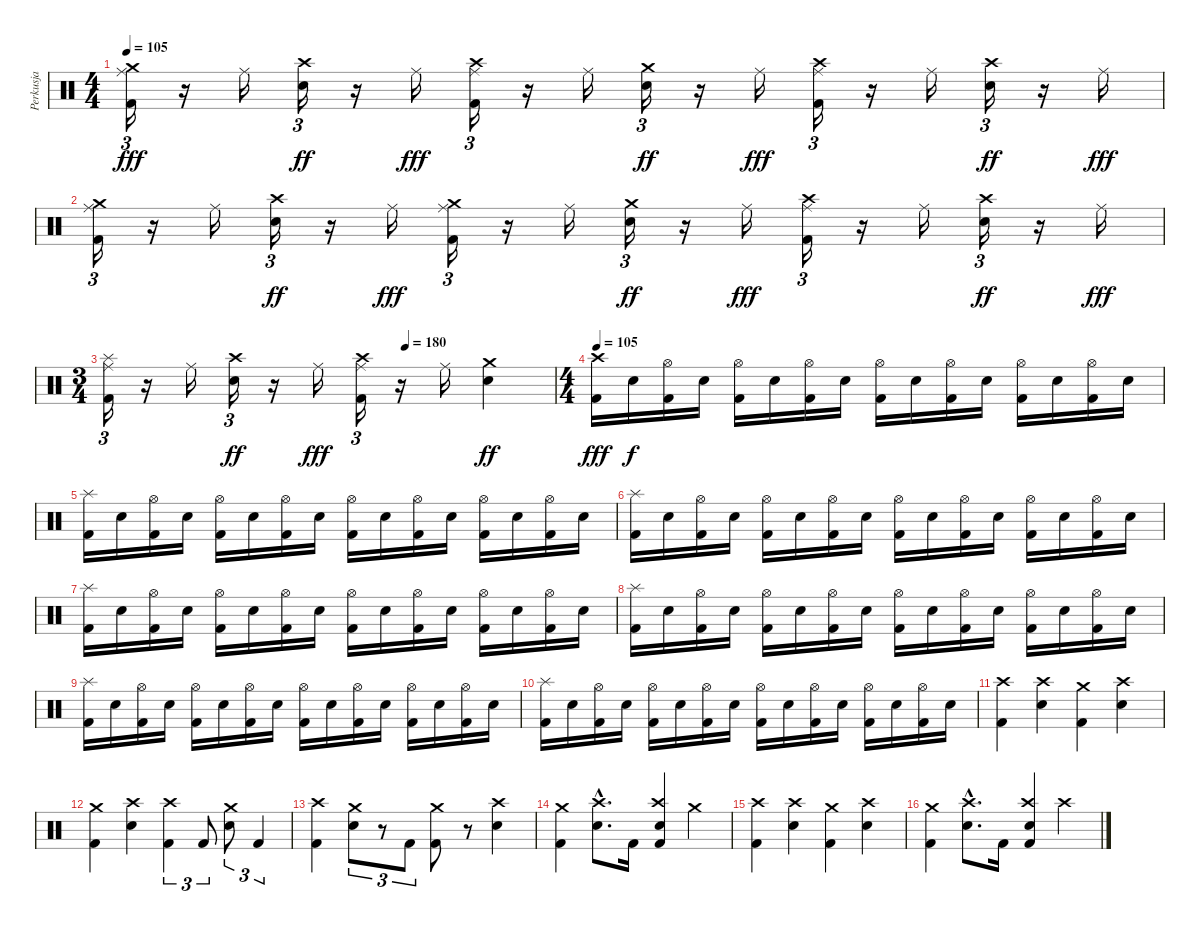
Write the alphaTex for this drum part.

\track ("Perkusja" "Perkusja") {instrument percussion}
\staff {score}
\articulation defaults
\ts (4 4)
\tempo 105
\clef neutral
\ks c
("Ride (middle)" "Crash medium (hit)" "Kick (hit) 2").16{tu (3 2) dy fff} r.16 "Ride (middle)".16 ("Crash high (hit)" "Snare (hit) 2").16{tu (3 2) dy ff} r.16 "Ride (middle)".16{dy fff} ("Ride (middle)" "Crash high (hit)" "Kick (hit) 2").16{tu (3 2)} r.16 "Ride (middle)".16 ("Crash medium (hit)" "Snare (hit) 2").16{tu (3 2) dy ff} r.16 "Ride (middle)".16{dy fff} ("Ride (middle)" "Crash high (hit)" "Kick (hit) 2").16{tu (3 2)} r.16 "Ride (middle)".16 ("Crash high (hit)" "Snare (hit) 2").16{tu (3 2) dy ff} r.16 "Ride (middle)".16{dy fff} |
("Ride (middle)" "Crash medium (hit)" "Kick (hit) 2").16{tu (3 2)} r.16 "Ride (middle)".16 ("Crash high (hit)" "Snare (hit) 2").16{tu (3 2) dy ff} r.16 "Ride (middle)".16{dy fff} ("Ride (middle)" "Crash medium (hit)" "Kick (hit) 2").16{tu (3 2)} r.16 "Ride (middle)".16 ("Crash medium (hit)" "Snare (hit) 2").16{tu (3 2) dy ff} r.16 "Ride (middle)".16{dy fff} ("Ride (middle)" "Crash high (hit)" "Kick (hit) 2").16{tu (3 2)} r.16 "Ride (middle)".16 ("Crash high (hit)" "Snare (hit) 2").16{tu (3 2) dy ff} r.16 "Ride (middle)".16{dy fff} |
\ts (3 4)
\tempo (180 0.6666666666666666)
("Ride (middle)" "Splash (hit)" "Kick (hit) 2").16{tu (3 2)} r.16 "Ride (middle)".16 ("Crash high (hit)" "Snare (hit) 2").16{tu (3 2) dy ff} r.16 "Ride (middle)".16{dy fff} ("Ride (middle)" "Crash high (hit)" "Kick (hit) 2").16{tu (3 2)} r.16 "Ride (middle)".16 ("Crash medium (hit)" "Snare (hit) 2").4{dy ff} |
\ts (4 4)
\tempo 105
("Crash high (hit)" "Kick (hit) 2").16{dy fff} "Snare (hit) 2".16{dy f} ("Hi-Hat (open)" "Kick (hit) 2").16 "Snare (hit) 2".16 ("Hi-Hat (open)" "Kick (hit) 2").16 "Snare (hit) 2".16 ("Hi-Hat (open)" "Kick (hit) 2").16 "Snare (hit) 2".16 ("Hi-Hat (open)" "Kick (hit) 2").16 "Snare (hit) 2".16 ("Hi-Hat (open)" "Kick (hit) 2").16 "Snare (hit) 2".16 ("Hi-Hat (open)" "Kick (hit) 2").16 "Snare (hit) 2".16 ("Hi-Hat (open)" "Kick (hit) 2").16 "Snare (hit) 2".16 |
("Splash (hit)" "Kick (hit) 2").16 "Snare (hit) 2".16 ("Hi-Hat (open)" "Kick (hit) 2").16 "Snare (hit) 2".16 ("Hi-Hat (open)" "Kick (hit) 2").16 "Snare (hit) 2".16 ("Hi-Hat (open)" "Kick (hit) 2").16 "Snare (hit) 2".16 ("Hi-Hat (open)" "Kick (hit) 2").16 "Snare (hit) 2".16 ("Hi-Hat (open)" "Kick (hit) 2").16 "Snare (hit) 2".16 ("Hi-Hat (open)" "Kick (hit) 2").16 "Snare (hit) 2".16 ("Hi-Hat (open)" "Kick (hit) 2").16 "Snare (hit) 2".16 |
("Splash (hit)" "Kick (hit) 2").16 "Snare (hit) 2".16 ("Hi-Hat (open)" "Kick (hit) 2").16 "Snare (hit) 2".16 ("Hi-Hat (open)" "Kick (hit) 2").16 "Snare (hit) 2".16 ("Hi-Hat (open)" "Kick (hit) 2").16 "Snare (hit) 2".16 ("Hi-Hat (open)" "Kick (hit) 2").16 "Snare (hit) 2".16 ("Hi-Hat (open)" "Kick (hit) 2").16 "Snare (hit) 2".16 ("Hi-Hat (open)" "Kick (hit) 2").16 "Snare (hit) 2".16 ("Hi-Hat (open)" "Kick (hit) 2").16 "Snare (hit) 2".16 |
("Splash (hit)" "Kick (hit) 2").16 "Snare (hit) 2".16 ("Hi-Hat (open)" "Kick (hit) 2").16 "Snare (hit) 2".16 ("Hi-Hat (open)" "Kick (hit) 2").16 "Snare (hit) 2".16 ("Hi-Hat (open)" "Kick (hit) 2").16 "Snare (hit) 2".16 ("Hi-Hat (open)" "Kick (hit) 2").16 "Snare (hit) 2".16 ("Hi-Hat (open)" "Kick (hit) 2").16 "Snare (hit) 2".16 ("Hi-Hat (open)" "Kick (hit) 2").16 "Snare (hit) 2".16 ("Hi-Hat (open)" "Kick (hit) 2").16 "Snare (hit) 2".16 |
("Splash (hit)" "Kick (hit) 2").16 "Snare (hit) 2".16 ("Hi-Hat (open)" "Kick (hit) 2").16 "Snare (hit) 2".16 ("Hi-Hat (open)" "Kick (hit) 2").16 "Snare (hit) 2".16 ("Hi-Hat (open)" "Kick (hit) 2").16 "Snare (hit) 2".16 ("Hi-Hat (open)" "Kick (hit) 2").16 "Snare (hit) 2".16 ("Hi-Hat (open)" "Kick (hit) 2").16 "Snare (hit) 2".16 ("Hi-Hat (open)" "Kick (hit) 2").16 "Snare (hit) 2".16 ("Hi-Hat (open)" "Kick (hit) 2").16 "Snare (hit) 2".16 |
("Splash (hit)" "Kick (hit) 2").16 "Snare (hit) 2".16 ("Hi-Hat (open)" "Kick (hit) 2").16 "Snare (hit) 2".16 ("Hi-Hat (open)" "Kick (hit) 2").16 "Snare (hit) 2".16 ("Hi-Hat (open)" "Kick (hit) 2").16 "Snare (hit) 2".16 ("Hi-Hat (open)" "Kick (hit) 2").16 "Snare (hit) 2".16 ("Hi-Hat (open)" "Kick (hit) 2").16 "Snare (hit) 2".16 ("Hi-Hat (open)" "Kick (hit) 2").16 "Snare (hit) 2".16 ("Hi-Hat (open)" "Kick (hit) 2").16 "Snare (hit) 2".16 |
("Splash (hit)" "Kick (hit) 2").16 "Snare (hit) 2".16 ("Hi-Hat (open)" "Kick (hit) 2").16 "Snare (hit) 2".16 ("Hi-Hat (open)" "Kick (hit) 2").16 "Snare (hit) 2".16 ("Hi-Hat (open)" "Kick (hit) 2").16 "Snare (hit) 2".16 ("Hi-Hat (open)" "Kick (hit) 2").16 "Snare (hit) 2".16 ("Hi-Hat (open)" "Kick (hit) 2").16 "Snare (hit) 2".16 ("Hi-Hat (open)" "Kick (hit) 2").16 "Snare (hit) 2".16 ("Hi-Hat (open)" "Kick (hit) 2").16 "Snare (hit) 2".16 |
("Crash high (hit)" "Kick (hit) 2").4 ("Crash high (hit)" "Snare (hit) 2").4 ("Crash medium (hit)" "Kick (hit) 2").4 ("Crash high (hit)" "Snare (hit) 2").4 |
("Crash medium (hit)" "Kick (hit) 2").4 ("Crash high (hit)" "Snare (hit) 2").4 ("Crash high (hit)" "Kick (hit) 2").4{tu (3 2)} "Kick (hit) 2".8{tu (3 2)} ("Crash medium (hit)" "Snare (hit) 2").8{tu (3 2)} "Kick (hit) 2".4{tu (3 2)} |
("Crash high (hit)" "Kick (hit) 2").4 ("Crash medium (hit)" "Snare (hit) 2").8{tu (3 2)} r.8{tu (3 2)} "Kick (hit) 2".8{tu (3 2)} ("Crash medium (hit)" "Kick (hit) 2").8 r.8 ("Crash high (hit)" "Snare (hit) 2").4 |
("Crash medium (hit)" "Kick (hit) 2").4 ("Crash high (hit)"{hac} "Snare (hit) 2"{hac}).8{d} "Kick (hit) 2".16 ("Crash high (hit)" "Snare (hit) 2" "Kick (hit) 2").4 "Crash medium (hit)".4 |
("Crash high (hit)" "Kick (hit) 2").4 ("Crash high (hit)" "Snare (hit) 2").4 ("Crash medium (hit)" "Kick (hit) 2").4 ("Crash high (hit)" "Snare (hit) 2").4 |
("Crash medium (hit)" "Kick (hit) 2").4 ("Crash high (hit)"{hac} "Snare (hit) 2"{hac}).8{d} "Kick (hit) 2".16 ("Crash high (hit)" "Snare (hit) 2" "Kick (hit) 2").4 "Crash high (hit)".4
